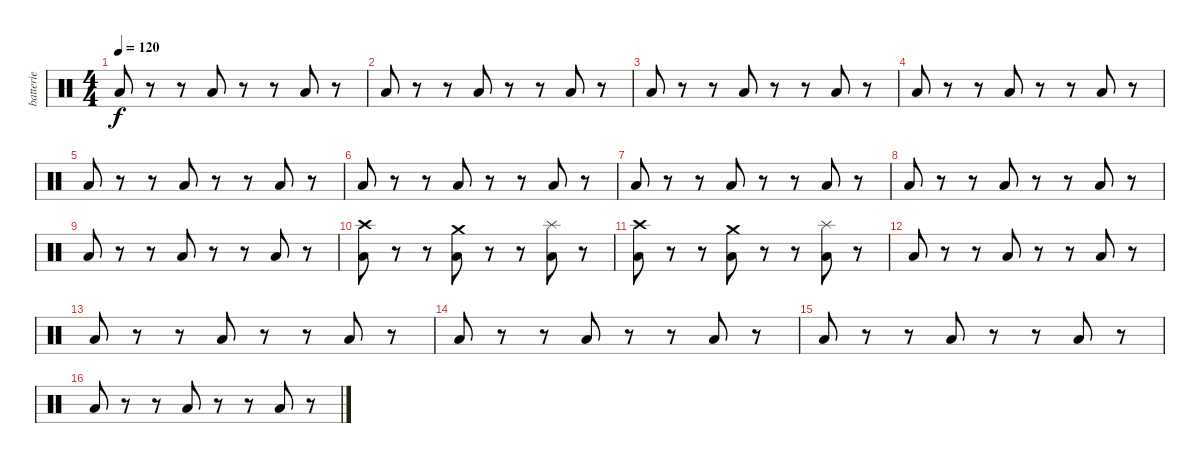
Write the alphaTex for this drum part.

\track ("batterie" "batterie") {instrument percussion}
\staff {score}
\articulation defaults
\ts (4 4)
\tempo 120
\clef neutral
\ks c "Low Floor Tom (hit)".8{dy f}
r.8 r.8 "Low Floor Tom (hit)".8 r.8 r.8 "Low Floor Tom (hit)".8 r.8 |
"Low Floor Tom (hit)".8 r.8 r.8 "Low Floor Tom (hit)".8 r.8 r.8 "Low Floor Tom (hit)".8 r.8 |
"Low Floor Tom (hit)".8 r.8 r.8 "Low Floor Tom (hit)".8 r.8 r.8 "Low Floor Tom (hit)".8 r.8 |
"Low Floor Tom (hit)".8 r.8 r.8 "Low Floor Tom (hit)".8 r.8 r.8 "Low Floor Tom (hit)".8 r.8 |
"Low Floor Tom (hit)".8 r.8 r.8 "Low Floor Tom (hit)".8 r.8 r.8 "Low Floor Tom (hit)".8 r.8 |
"Low Floor Tom (hit)".8 r.8 r.8 "Low Floor Tom (hit)".8 r.8 r.8 "Low Floor Tom (hit)".8 r.8 |
"Low Floor Tom (hit)".8 r.8 r.8 "Low Floor Tom (hit)".8 r.8 r.8 "Low Floor Tom (hit)".8 r.8 |
"Low Floor Tom (hit)".8 r.8 r.8 "Low Floor Tom (hit)".8 r.8 r.8 "Low Floor Tom (hit)".8 r.8 |
"Low Floor Tom (hit)".8 r.8 r.8 "Low Floor Tom (hit)".8 r.8 r.8 "Low Floor Tom (hit)".8 r.8 |
("Crash high (hit)" "Low Floor Tom (hit)").8 r.8 r.8 ("Crash medium (hit)" "Low Floor Tom (hit)").8 r.8 r.8 ("Splash (hit)" "Low Floor Tom (hit)").8 r.8 |
("Crash high (hit)" "Low Floor Tom (hit)").8 r.8 r.8 ("Crash medium (hit)" "Low Floor Tom (hit)").8 r.8 r.8 ("Splash (hit)" "Low Floor Tom (hit)").8 r.8 |
"Low Floor Tom (hit)".8 r.8 r.8 "Low Floor Tom (hit)".8 r.8 r.8 "Low Floor Tom (hit)".8 r.8 |
"Low Floor Tom (hit)".8 r.8 r.8 "Low Floor Tom (hit)".8 r.8 r.8 "Low Floor Tom (hit)".8 r.8 |
"Low Floor Tom (hit)".8 r.8 r.8 "Low Floor Tom (hit)".8 r.8 r.8 "Low Floor Tom (hit)".8 r.8 |
"Low Floor Tom (hit)".8 r.8 r.8 "Low Floor Tom (hit)".8 r.8 r.8 "Low Floor Tom (hit)".8 r.8 |
"Low Floor Tom (hit)".8 r.8 r.8 "Low Floor Tom (hit)".8 r.8 r.8 "Low Floor Tom (hit)".8 r.8
